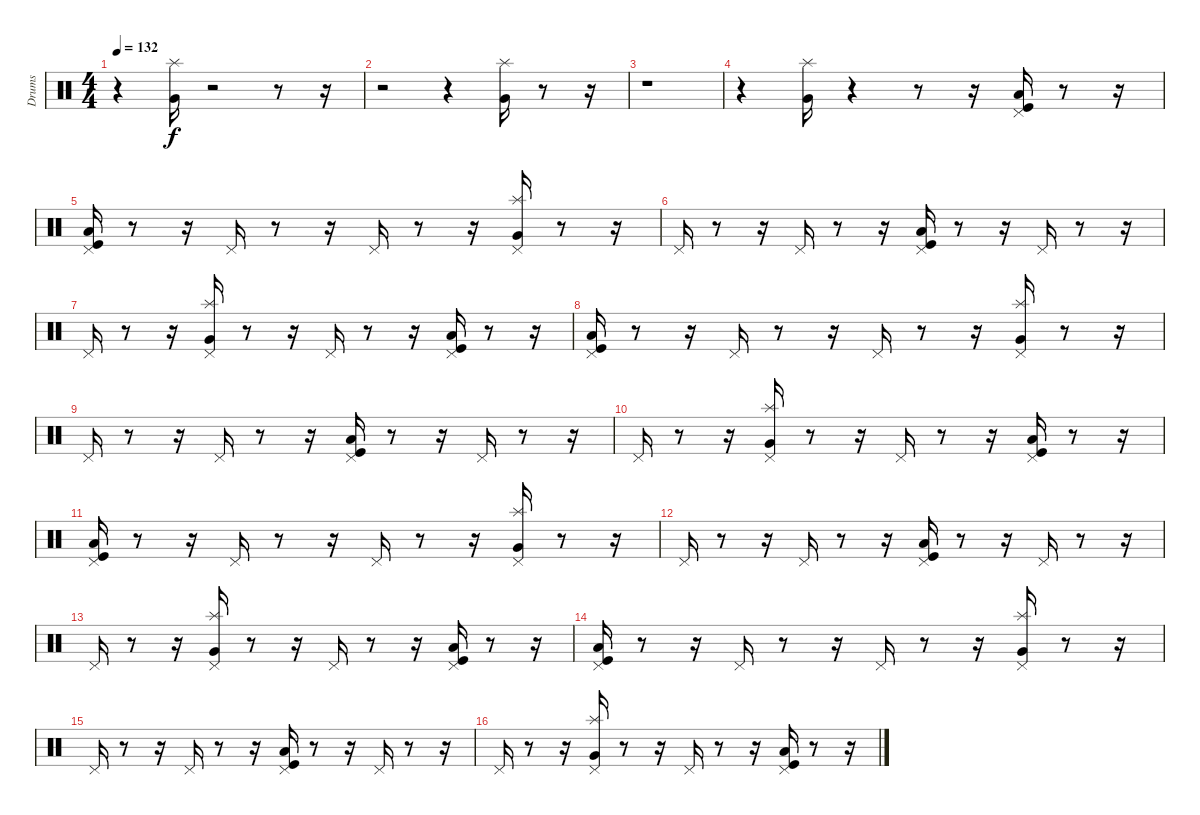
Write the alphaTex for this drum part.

\track ("Drums" "Drums") {instrument percussion}
\staff {score}
\articulation defaults
\ts (4 4)
\tempo 132
\clef neutral
\ks c
r.4{dy f} ("Very Low Tom (hit)" "Splash (hit)").16 r.2 r.8 r.16 |
r.2 r.4 ("Very Low Tom (hit)" "Splash (hit)").16 r.8 r.16 |
r.1 |
r.4 ("Very Low Tom (hit)" "Splash (hit)").16 r.4 r.8 r.16 ("Low Floor Tom (hit)" "Pedal Hi-Hat (hit)" "Kick (hit)").16 r.8 r.16 |
("Low Floor Tom (hit)" "Pedal Hi-Hat (hit)" "Kick (hit)").16 r.8 r.16 "Pedal Hi-Hat (hit)".16 r.8 r.16 "Pedal Hi-Hat (hit)".16 r.8 r.16 ("Pedal Hi-Hat (hit)" "Very Low Tom (hit)" "Splash (hit)").16 r.8 r.16 |
"Pedal Hi-Hat (hit)".16 r.8 r.16 "Pedal Hi-Hat (hit)".16 r.8 r.16 ("Low Floor Tom (hit)" "Pedal Hi-Hat (hit)" "Kick (hit)").16 r.8 r.16 "Pedal Hi-Hat (hit)".16 r.8 r.16 |
"Pedal Hi-Hat (hit)".16 r.8 r.16 ("Pedal Hi-Hat (hit)" "Very Low Tom (hit)" "Splash (hit)").16 r.8 r.16 "Pedal Hi-Hat (hit)".16 r.8 r.16 ("Pedal Hi-Hat (hit)" "Low Floor Tom (hit)" "Kick (hit)").16 r.8 r.16 |
("Low Floor Tom (hit)" "Pedal Hi-Hat (hit)" "Kick (hit)").16 r.8 r.16 "Pedal Hi-Hat (hit)".16 r.8 r.16 "Pedal Hi-Hat (hit)".16 r.8 r.16 ("Pedal Hi-Hat (hit)" "Very Low Tom (hit)" "Splash (hit)").16 r.8 r.16 |
"Pedal Hi-Hat (hit)".16 r.8 r.16 "Pedal Hi-Hat (hit)".16 r.8 r.16 ("Low Floor Tom (hit)" "Pedal Hi-Hat (hit)" "Kick (hit)").16 r.8 r.16 "Pedal Hi-Hat (hit)".16 r.8 r.16 |
"Pedal Hi-Hat (hit)".16 r.8 r.16 ("Pedal Hi-Hat (hit)" "Very Low Tom (hit)" "Splash (hit)").16 r.8 r.16 "Pedal Hi-Hat (hit)".16 r.8 r.16 ("Pedal Hi-Hat (hit)" "Low Floor Tom (hit)" "Kick (hit)").16 r.8 r.16 |
("Low Floor Tom (hit)" "Pedal Hi-Hat (hit)" "Kick (hit)").16 r.8 r.16 "Pedal Hi-Hat (hit)".16 r.8 r.16 "Pedal Hi-Hat (hit)".16 r.8 r.16 ("Pedal Hi-Hat (hit)" "Very Low Tom (hit)" "Splash (hit)").16 r.8 r.16 |
"Pedal Hi-Hat (hit)".16 r.8 r.16 "Pedal Hi-Hat (hit)".16 r.8 r.16 ("Low Floor Tom (hit)" "Pedal Hi-Hat (hit)" "Kick (hit)").16 r.8 r.16 "Pedal Hi-Hat (hit)".16 r.8 r.16 |
"Pedal Hi-Hat (hit)".16 r.8 r.16 ("Pedal Hi-Hat (hit)" "Very Low Tom (hit)" "Splash (hit)").16 r.8 r.16 "Pedal Hi-Hat (hit)".16 r.8 r.16 ("Pedal Hi-Hat (hit)" "Low Floor Tom (hit)" "Kick (hit)").16 r.8 r.16 |
("Low Floor Tom (hit)" "Pedal Hi-Hat (hit)" "Kick (hit)").16 r.8 r.16 "Pedal Hi-Hat (hit)".16 r.8 r.16 "Pedal Hi-Hat (hit)".16 r.8 r.16 ("Pedal Hi-Hat (hit)" "Very Low Tom (hit)" "Splash (hit)").16 r.8 r.16 |
"Pedal Hi-Hat (hit)".16 r.8 r.16 "Pedal Hi-Hat (hit)".16 r.8 r.16 ("Low Floor Tom (hit)" "Pedal Hi-Hat (hit)" "Kick (hit)").16 r.8 r.16 "Pedal Hi-Hat (hit)".16 r.8 r.16 |
"Pedal Hi-Hat (hit)".16 r.8 r.16 ("Pedal Hi-Hat (hit)" "Very Low Tom (hit)" "Splash (hit)").16 r.8 r.16 "Pedal Hi-Hat (hit)".16 r.8 r.16 ("Pedal Hi-Hat (hit)" "Low Floor Tom (hit)" "Kick (hit)").16 r.8 r.16
